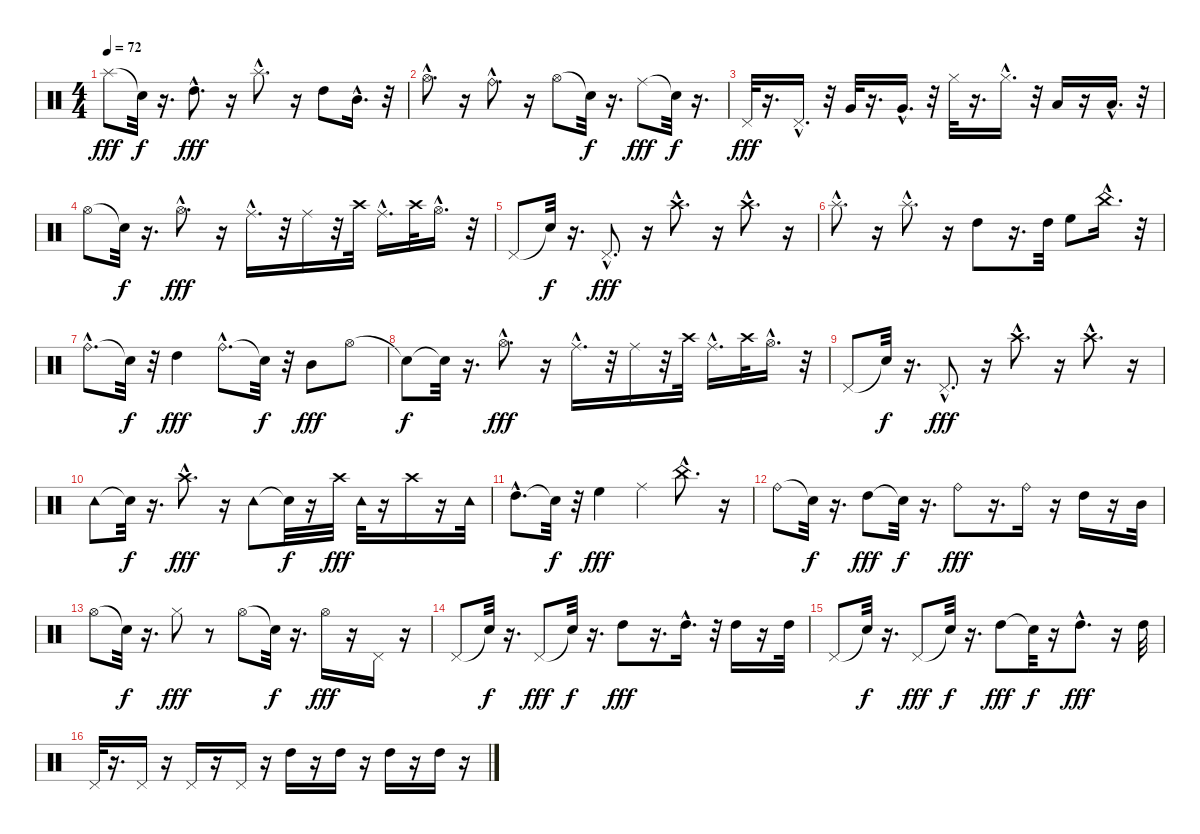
\track "" {instrument percussion}
\staff {score}
\articulation defaults
\ts (4 4)
\tempo 72
\clef neutral
\ks c "Splash (hit)".8{dy fff} "Snare (hit)"{t}.32{dy f}
r.16{d} "High Tom (hit)"{hac}.8{d dy fff} r.16 "Splash (hit)"{hac}.8{d} r.16 "High Tom (hit)".8 "Mid Tom (hit)"{hac}.16{d} r.32 |
"Hi-Hat (open)"{hac}.8{d} r.16 "Ride (bell)"{hac}.8{d} r.16 "Hi-Hat (open)".8 "Snare (hit)"{t}.32{dy f} r.16{d} "Ride (middle)".8{dy fff} "Snare (hit)"{t}.32{dy f} r.16{d} |
"Pedal Hi-Hat (hit)".32{dy fff} r.16{d} "Pedal Hi-Hat (hit)"{hac}.16{d} r.32 "Very Low Tom (hit)".32 r.16{d} "Very Low Tom (hit)"{hac}.16{d} r.32 "Hi-Hat (closed)".32 r.16{d} "Hi-Hat (closed)"{hac}.16{d} r.32 "Low Floor Tom (hit)".16 r.16 "Low Floor Tom (hit)"{hac}.16{d} r.32 |
"Hi-Hat (open)".8 "Snare (hit)"{t}.32{dy f} r.16{d} "Hi-Hat (open)"{hac}.8{d dy fff} r.16 "Ride (middle)"{hac}.16{d} r.32 "Ride (middle)".16 r.32 "Crash high (hit)".32 "Ride (middle)"{hac}.16{d} "Crash high (hit)".32 "Hi-Hat (open)"{hac}.16{d} r.32 |
"Pedal Hi-Hat (hit)".8 "Snare (hit)"{t}.32{dy f} r.16{d} "Pedal Hi-Hat (hit)"{hac}.8{d dy fff} r.16 "Crash high (hit)"{hac}.8{d} r.16 "Crash high (hit)"{hac}.8{d} r.16 |
"Splash (hit)"{hac}.8{d} r.16 "Splash (hit)"{hac}.8{d} r.16 "High Tom (hit)".8 r.16{d} "High Tom (hit)".32 "High Floor Tom (hit)".8 "China (hit)"{hac}.16{d} r.32 |
"Ride (bell)"{hac}.8{d} "Snare (hit)"{t}.32{dy f} r.32 "High Tom (hit)".4{dy fff} "Ride (bell)"{hac}.8{d} "Snare (hit)"{t}.32{dy f} r.32 "Mid Tom (hit)".8{dy fff} "Hi-Hat (open)".8 |
"Snare (hit)"{t}.8{dy f} "Snare (hit)"{t}.32 r.16{d} "Hi-Hat (open)"{hac}.8{d dy fff} r.16 "Ride (middle)"{hac}.16{d} r.32 "Ride (middle)".16 r.32 "Crash high (hit)".32 "Ride (middle)"{hac}.16{d} "Crash high (hit)".32 "Hi-Hat (open)"{hac}.16{d} r.32 |
"Pedal Hi-Hat (hit)".8 "Snare (hit)"{t}.32{dy f} r.16{d} "Pedal Hi-Hat (hit)"{hac}.8{d dy fff} r.16 "Crash high (hit)"{hac}.8{d} r.16 "Crash high (hit)"{hac}.8{d} r.16 |
"Tambourine (hit)".8 "Snare (hit)"{t}.32{dy f} r.16{d} "Crash high (hit)"{hac}.8{d dy fff} r.16 "Tambourine (hit)".8 "Snare (hit)"{t}.32{dy f} r.16 "Crash high (hit)".32{dy fff} "Tambourine (hit)".32 r.16 "Crash high (hit)".16 r.16 "Tambourine (hit)".32 |
"High Tom (hit)"{hac}.8{d} "Snare (hit)"{t}.32{dy f} r.32 "High Floor Tom (hit)".4{dy fff} "Ride (middle)".4 "China (hit)"{hac}.8{d} r.16 |
"Ride (bell)".8 "Snare (hit)"{t}.32{dy f} r.16{d} "High Tom (hit)".8{dy fff} "Snare (hit)"{t}.32{dy f} r.16{d} "Ride (bell)".8{dy fff} r.16{d} "Ride (bell)".16 r.16 "High Tom (hit)".16 r.16 "Mid Tom (hit)".32 |
"Hi-Hat (open)".8 "Snare (hit)"{t}.32{dy f} r.16{d} "Hi-Hat (closed)".8{dy fff} r.8 "Hi-Hat (open)".8 "Snare (hit)"{t}.32{dy f} r.16{d} "Hi-Hat (open)".16{dy fff} r.16 "Pedal Hi-Hat (hit)".16 r.16 |
"Pedal Hi-Hat (hit)".8 "Snare (hit)"{t}.32{dy f} r.16{d} "Pedal Hi-Hat (hit)".8{dy fff} "Snare (hit)"{t}.32{dy f} r.16{d} "High Tom (hit)".8{dy fff} r.16{d} "High Tom (hit)"{hac}.16{d} r.32 "High Tom (hit)".16 r.16 "High Tom (hit)".32 |
"Pedal Hi-Hat (hit)".8 "Snare (hit)"{t}.32{dy f} r.16{d} "Pedal Hi-Hat (hit)".8{dy fff} "Snare (hit)"{t}.32{dy f} r.16{d} "High Tom (hit)".8{dy fff} "Snare (hit)"{t}.32{dy f} r.16 "High Tom (hit)"{hac}.8{d dy fff} r.16 "High Tom (hit)".32 |
"Pedal Hi-Hat (hit)".32 r.16{d} "Pedal Hi-Hat (hit)".16 r.16 "Pedal Hi-Hat (hit)".16 r.16 "Pedal Hi-Hat (hit)".16 r.16 "High Tom (hit)".16 r.16 "High Tom (hit)".16 r.16 "High Tom (hit)".16 r.16 "High Tom (hit)".16 r.16
